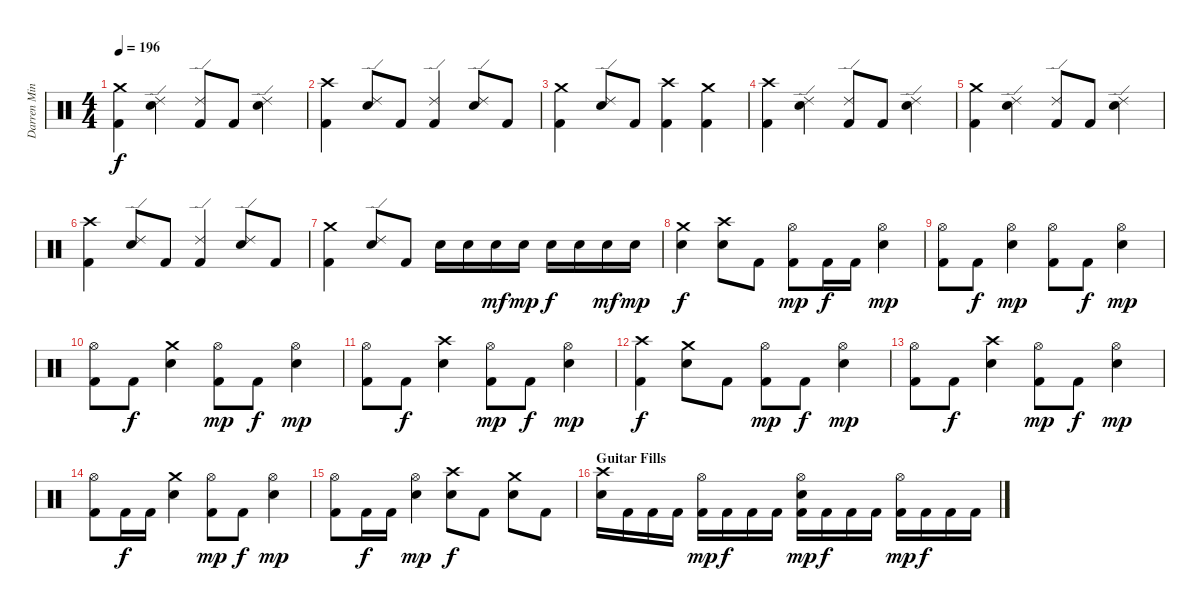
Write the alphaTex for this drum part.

\track ("Darren Minter" "Darren Min") {instrument percussion}
\staff {score}
\articulation defaults
\ts (4 4)
\tempo 196
\clef neutral
\ks c
("Kick (hit) 2" "Crash medium (hit)").4{dy f} ("Ride (edge) 2" "Snare (hit) 2").4 ("Kick (hit) 2" "Ride (edge) 2").8 "Kick (hit) 2".8 ("Ride (edge) 2" "Snare (hit) 2").4 |
("Kick (hit) 2" "Crash high (hit)").4 ("Ride (edge) 2" "Snare (hit) 2").8 "Kick (hit) 2".8 ("Kick (hit) 2" "Ride (edge) 2").4 ("Ride (edge) 2" "Snare (hit) 2").8 "Kick (hit) 2".8 |
("Kick (hit) 2" "Crash medium (hit)").4 ("Ride (edge) 2" "Snare (hit) 2").8 "Kick (hit) 2".8 ("Kick (hit) 2" "Crash high (hit)").4 ("Kick (hit) 2" "Crash medium (hit)").4 |
("Kick (hit) 2" "Crash high (hit)").4 ("Ride (edge) 2" "Snare (hit) 2").4 ("Kick (hit) 2" "Ride (edge) 2").8 "Kick (hit) 2".8 ("Ride (edge) 2" "Snare (hit) 2").4 |
("Kick (hit) 2" "Crash medium (hit)").4 ("Ride (edge) 2" "Snare (hit) 2").4 ("Kick (hit) 2" "Ride (edge) 2").8 "Kick (hit) 2".8 ("Ride (edge) 2" "Snare (hit) 2").4 |
("Kick (hit) 2" "Crash high (hit)").4 ("Ride (edge) 2" "Snare (hit) 2").8 "Kick (hit) 2".8 ("Kick (hit) 2" "Ride (edge) 2").4 ("Ride (edge) 2" "Snare (hit) 2").8 "Kick (hit) 2".8 |
("Kick (hit) 2" "Crash medium (hit)").4 ("Ride (edge) 2" "Snare (hit) 2").8 "Kick (hit) 2".8 "Snare (hit) 2".16 "Snare (hit) 2".16 "Snare (hit) 2".16{dy mf} "Snare (hit) 2".16{dy mp} "Snare (hit) 2".16{dy f} "Snare (hit) 2".16 "Snare (hit) 2".16{dy mf} "Snare (hit) 2".16{dy mp} |
("Crash medium (hit)" "Snare (hit) 2").4{dy f} ("Crash high (hit)" "Snare (hit) 2").8 "Kick (hit) 2".8 ("Kick (hit) 2" "Hi-Hat (open)").8{dy mp} "Kick (hit) 2".16{dy f} "Kick (hit) 2".16 ("Hi-Hat (open)" "Snare (hit) 2").4{dy mp} |
("Kick (hit) 2" "Hi-Hat (open)").8 "Kick (hit) 2".8{dy f} ("Hi-Hat (open)" "Snare (hit) 2").4{dy mp} ("Kick (hit) 2" "Hi-Hat (open)").8 "Kick (hit) 2".8{dy f} ("Hi-Hat (open)" "Snare (hit) 2").4{dy mp} |
("Kick (hit) 2" "Hi-Hat (open)").8 "Kick (hit) 2".8{dy f} ("Crash medium (hit)" "Snare (hit) 2").4 ("Kick (hit) 2" "Hi-Hat (open)").8{dy mp} "Kick (hit) 2".8{dy f} ("Hi-Hat (open)" "Snare (hit) 2").4{dy mp} |
("Kick (hit) 2" "Hi-Hat (open)").8 "Kick (hit) 2".8{dy f} ("Crash high (hit)" "Snare (hit) 2").4 ("Kick (hit) 2" "Hi-Hat (open)").8{dy mp} "Kick (hit) 2".8{dy f} ("Hi-Hat (open)" "Snare (hit) 2").4{dy mp} |
("Kick (hit) 2" "Crash high (hit)").4{dy f} ("Crash medium (hit)" "Snare (hit) 2").8 "Kick (hit) 2".8 ("Kick (hit) 2" "Hi-Hat (open)").8{dy mp} "Kick (hit) 2".8{dy f} ("Hi-Hat (open)" "Snare (hit) 2").4{dy mp} |
("Kick (hit) 2" "Hi-Hat (open)").8 "Kick (hit) 2".8{dy f} ("Crash high (hit)" "Snare (hit) 2").4 ("Kick (hit) 2" "Hi-Hat (open)").8{dy mp} "Kick (hit) 2".8{dy f} ("Hi-Hat (open)" "Snare (hit) 2").4{dy mp} |
("Kick (hit) 2" "Hi-Hat (open)").8 "Kick (hit) 2".16{dy f} "Kick (hit) 2".16 ("Crash medium (hit)" "Snare (hit) 2").4 ("Kick (hit) 2" "Hi-Hat (open)").8{dy mp} "Kick (hit) 2".8{dy f} ("Hi-Hat (open)" "Snare (hit) 2").4{dy mp} |
("Kick (hit) 2" "Hi-Hat (open)").8 "Kick (hit) 2".16{dy f} "Kick (hit) 2".16 ("Hi-Hat (open)" "Snare (hit) 2").4{dy mp} ("Crash high (hit)" "Snare (hit) 2").8{dy f} "Kick (hit) 2".8 ("Crash medium (hit)" "Snare (hit) 2").8 "Kick (hit) 2".8 |
\section ("" "Guitar Fills")
("Crash high (hit)" "Snare (hit) 2").16 "Kick (hit) 2".16 "Kick (hit) 2".16 "Kick (hit) 2".16 ("Kick (hit) 2" "Hi-Hat (open)").16{dy mp} "Kick (hit) 2".16{dy f} "Kick (hit) 2".16 "Kick (hit) 2".16 ("Kick (hit) 2" "Hi-Hat (open)" "Snare (hit) 2").16{dy mp} "Kick (hit) 2".16{dy f} "Kick (hit) 2".16 "Kick (hit) 2".16 ("Kick (hit) 2" "Hi-Hat (open)").16{dy mp} "Kick (hit) 2".16{dy f} "Kick (hit) 2".16 "Kick (hit) 2".16
